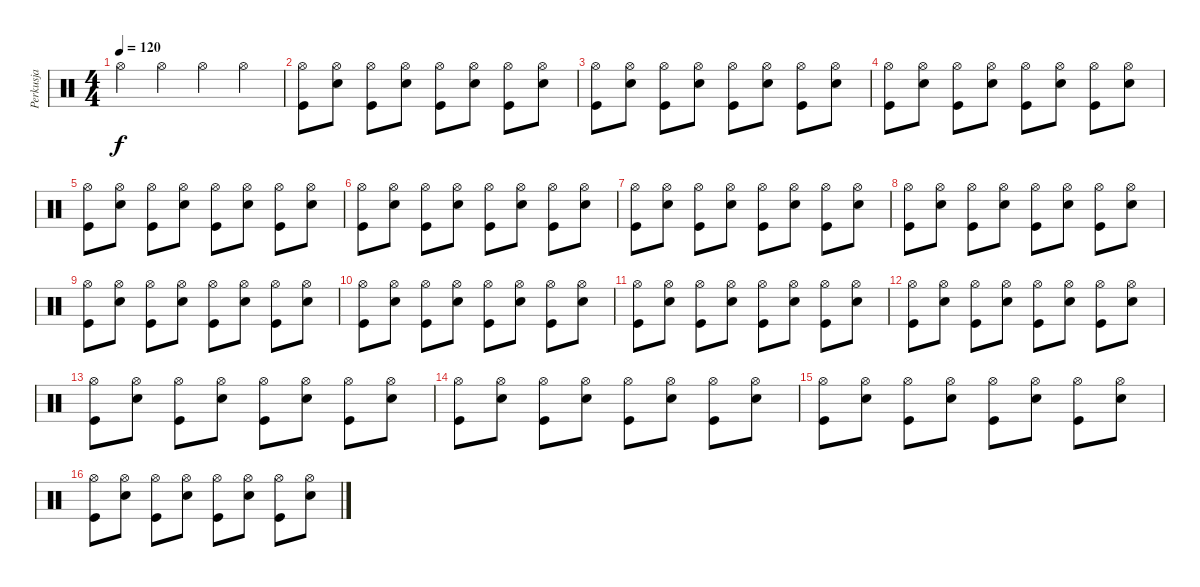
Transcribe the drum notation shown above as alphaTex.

\track ("Perkusja" "Perkusja") {instrument percussion}
\staff {score}
\articulation defaults
\ts (4 4)
\tempo 120
\clef neutral
\ks c "Hi-Hat (open)".4{dy f} "Hi-Hat (open)".4 "Hi-Hat (open)".4 "Hi-Hat (open)".4
|
("Kick (hit)" "Hi-Hat (open)").8 ("Snare (hit) 2" "Hi-Hat (open)").8 ("Kick (hit)" "Hi-Hat (open)").8 ("Snare (hit) 2" "Hi-Hat (open)").8 ("Kick (hit)" "Hi-Hat (open)").8 ("Snare (hit) 2" "Hi-Hat (open)").8 ("Kick (hit)" "Hi-Hat (open)").8 ("Snare (hit) 2" "Hi-Hat (open)").8 |
("Kick (hit)" "Hi-Hat (open)").8 ("Snare (hit) 2" "Hi-Hat (open)").8 ("Kick (hit)" "Hi-Hat (open)").8 ("Snare (hit) 2" "Hi-Hat (open)").8 ("Kick (hit)" "Hi-Hat (open)").8 ("Snare (hit) 2" "Hi-Hat (open)").8 ("Kick (hit)" "Hi-Hat (open)").8 ("Snare (hit) 2" "Hi-Hat (open)").8 |
("Kick (hit)" "Hi-Hat (open)").8 ("Snare (hit) 2" "Hi-Hat (open)").8 ("Kick (hit)" "Hi-Hat (open)").8 ("Snare (hit) 2" "Hi-Hat (open)").8 ("Kick (hit)" "Hi-Hat (open)").8 ("Snare (hit) 2" "Hi-Hat (open)").8 ("Kick (hit)" "Hi-Hat (open)").8 ("Snare (hit) 2" "Hi-Hat (open)").8 |
("Kick (hit)" "Hi-Hat (open)").8 ("Snare (hit) 2" "Hi-Hat (open)").8 ("Kick (hit)" "Hi-Hat (open)").8 ("Snare (hit) 2" "Hi-Hat (open)").8 ("Kick (hit)" "Hi-Hat (open)").8 ("Snare (hit) 2" "Hi-Hat (open)").8 ("Kick (hit)" "Hi-Hat (open)").8 ("Snare (hit) 2" "Hi-Hat (open)").8 |
("Kick (hit)" "Hi-Hat (open)").8 ("Snare (hit) 2" "Hi-Hat (open)").8 ("Kick (hit)" "Hi-Hat (open)").8 ("Snare (hit) 2" "Hi-Hat (open)").8 ("Kick (hit)" "Hi-Hat (open)").8 ("Snare (hit) 2" "Hi-Hat (open)").8 ("Kick (hit)" "Hi-Hat (open)").8 ("Snare (hit) 2" "Hi-Hat (open)").8 |
("Kick (hit)" "Hi-Hat (open)").8 ("Snare (hit) 2" "Hi-Hat (open)").8 ("Kick (hit)" "Hi-Hat (open)").8 ("Snare (hit) 2" "Hi-Hat (open)").8 ("Kick (hit)" "Hi-Hat (open)").8 ("Snare (hit) 2" "Hi-Hat (open)").8 ("Kick (hit)" "Hi-Hat (open)").8 ("Snare (hit) 2" "Hi-Hat (open)").8 |
("Kick (hit)" "Hi-Hat (open)").8 ("Snare (hit) 2" "Hi-Hat (open)").8 ("Kick (hit)" "Hi-Hat (open)").8 ("Snare (hit) 2" "Hi-Hat (open)").8 ("Kick (hit)" "Hi-Hat (open)").8 ("Snare (hit) 2" "Hi-Hat (open)").8 ("Kick (hit)" "Hi-Hat (open)").8 ("Snare (hit) 2" "Hi-Hat (open)").8 |
("Kick (hit)" "Hi-Hat (open)").8 ("Snare (hit) 2" "Hi-Hat (open)").8 ("Kick (hit)" "Hi-Hat (open)").8 ("Snare (hit) 2" "Hi-Hat (open)").8 ("Kick (hit)" "Hi-Hat (open)").8 ("Snare (hit) 2" "Hi-Hat (open)").8 ("Kick (hit)" "Hi-Hat (open)").8 ("Snare (hit) 2" "Hi-Hat (open)").8 |
("Kick (hit)" "Hi-Hat (open)").8 ("Snare (hit) 2" "Hi-Hat (open)").8 ("Kick (hit)" "Hi-Hat (open)").8 ("Snare (hit) 2" "Hi-Hat (open)").8 ("Kick (hit)" "Hi-Hat (open)").8 ("Snare (hit) 2" "Hi-Hat (open)").8 ("Kick (hit)" "Hi-Hat (open)").8 ("Snare (hit) 2" "Hi-Hat (open)").8 |
("Kick (hit)" "Hi-Hat (open)").8 ("Snare (hit) 2" "Hi-Hat (open)").8 ("Kick (hit)" "Hi-Hat (open)").8 ("Snare (hit) 2" "Hi-Hat (open)").8 ("Kick (hit)" "Hi-Hat (open)").8 ("Snare (hit) 2" "Hi-Hat (open)").8 ("Kick (hit)" "Hi-Hat (open)").8 ("Snare (hit) 2" "Hi-Hat (open)").8 |
("Kick (hit)" "Hi-Hat (open)").8 ("Snare (hit) 2" "Hi-Hat (open)").8 ("Kick (hit)" "Hi-Hat (open)").8 ("Snare (hit) 2" "Hi-Hat (open)").8 ("Kick (hit)" "Hi-Hat (open)").8 ("Snare (hit) 2" "Hi-Hat (open)").8 ("Kick (hit)" "Hi-Hat (open)").8 ("Snare (hit) 2" "Hi-Hat (open)").8 |
("Kick (hit)" "Hi-Hat (open)").8 ("Snare (hit) 2" "Hi-Hat (open)").8 ("Kick (hit)" "Hi-Hat (open)").8 ("Snare (hit) 2" "Hi-Hat (open)").8 ("Kick (hit)" "Hi-Hat (open)").8 ("Snare (hit) 2" "Hi-Hat (open)").8 ("Kick (hit)" "Hi-Hat (open)").8 ("Snare (hit) 2" "Hi-Hat (open)").8 |
("Kick (hit)" "Hi-Hat (open)").8 ("Snare (hit) 2" "Hi-Hat (open)").8 ("Kick (hit)" "Hi-Hat (open)").8 ("Snare (hit) 2" "Hi-Hat (open)").8 ("Kick (hit)" "Hi-Hat (open)").8 ("Snare (hit) 2" "Hi-Hat (open)").8 ("Kick (hit)" "Hi-Hat (open)").8 ("Snare (hit) 2" "Hi-Hat (open)").8 |
("Kick (hit)" "Hi-Hat (open)").8 ("Snare (hit) 2" "Hi-Hat (open)").8 ("Kick (hit)" "Hi-Hat (open)").8 ("Snare (hit) 2" "Hi-Hat (open)").8 ("Kick (hit)" "Hi-Hat (open)").8 ("Snare (hit) 2" "Hi-Hat (open)").8 ("Kick (hit)" "Hi-Hat (open)").8 ("Snare (hit) 2" "Hi-Hat (open)").8 |
("Kick (hit)" "Hi-Hat (open)").8 ("Snare (hit) 2" "Hi-Hat (open)").8 ("Kick (hit)" "Hi-Hat (open)").8 ("Snare (hit) 2" "Hi-Hat (open)").8 ("Kick (hit)" "Hi-Hat (open)").8 ("Snare (hit) 2" "Hi-Hat (open)").8 ("Kick (hit)" "Hi-Hat (open)").8 ("Snare (hit) 2" "Hi-Hat (open)").8
